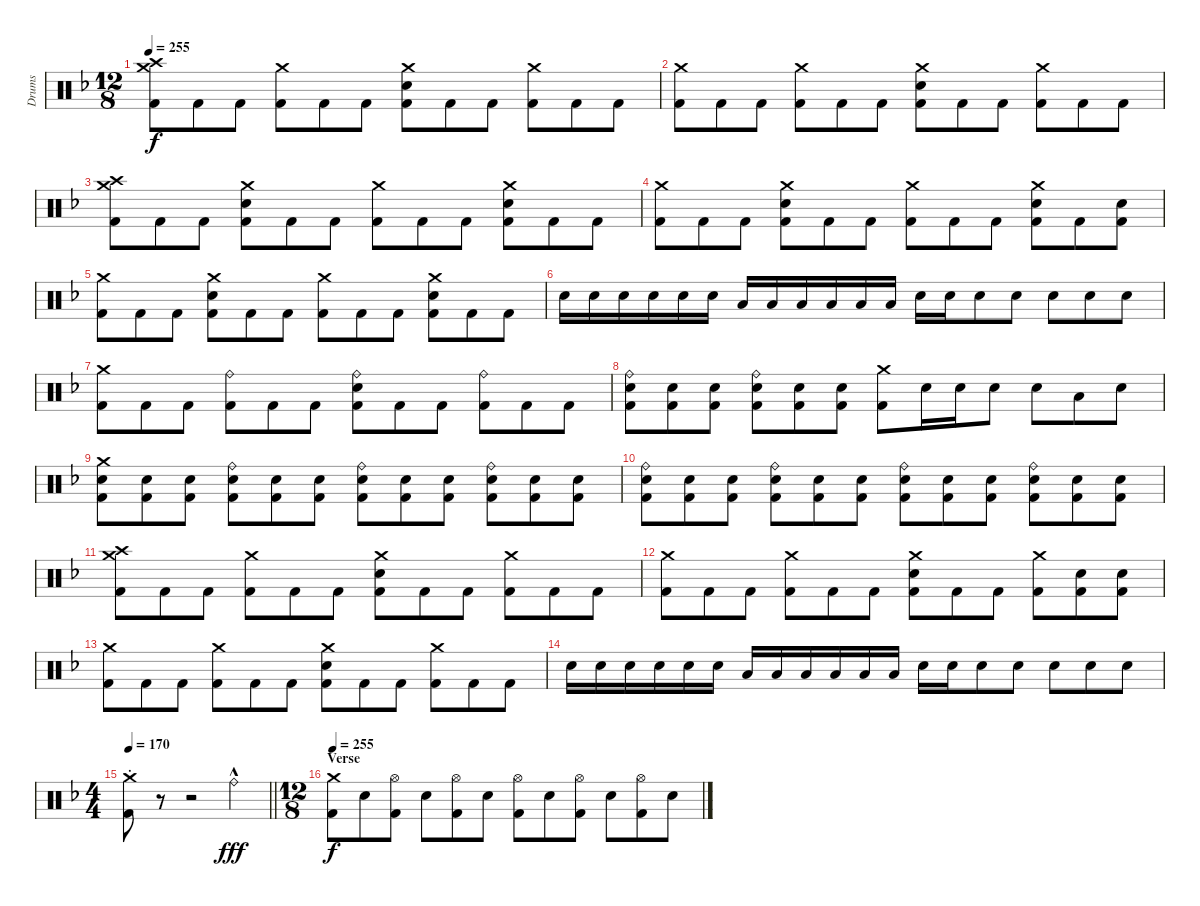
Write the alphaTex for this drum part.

\track ("Drums" "Drums") {instrument percussion}
\staff {score}
\articulation defaults
\ts (12 8)
\tempo 255
\clef neutral
\ks dminor
("Crash medium (hit)" "Crash high (hit)" "Kick (hit) 2").8{dy f} "Kick (hit) 2".8 "Kick (hit) 2".8 ("Crash medium (hit)" "Kick (hit) 2").8 "Kick (hit) 2".8 "Kick (hit) 2".8 ("Crash medium (hit)" "Electric Snare (hit)" "Kick (hit) 2").8 "Kick (hit) 2".8 "Kick (hit) 2".8 ("Crash medium (hit)" "Kick (hit) 2").8 "Kick (hit) 2".8 "Kick (hit) 2".8 |
("Crash medium (hit)" "Kick (hit) 2").8 "Kick (hit) 2".8 "Kick (hit) 2".8 ("Crash medium (hit)" "Kick (hit) 2").8 "Kick (hit) 2".8 "Kick (hit) 2".8 ("Crash medium (hit)" "Electric Snare (hit)" "Kick (hit) 2").8 "Kick (hit) 2".8 "Kick (hit) 2".8 ("Crash medium (hit)" "Kick (hit) 2").8 "Kick (hit) 2".8 "Kick (hit) 2".8 |
("Crash medium (hit)" "Crash high (hit)" "Kick (hit) 2").8 "Kick (hit) 2".8 "Kick (hit) 2".8 ("Crash medium (hit)" "Electric Snare (hit)" "Kick (hit) 2").8 "Kick (hit) 2".8 "Kick (hit) 2".8 ("Crash medium (hit)" "Kick (hit) 2").8 "Kick (hit) 2".8 "Kick (hit) 2".8 ("Crash medium (hit)" "Electric Snare (hit)" "Kick (hit) 2").8 "Kick (hit) 2".8 "Kick (hit) 2".8 |
("Crash medium (hit)" "Kick (hit) 2").8 "Kick (hit) 2".8 "Kick (hit) 2".8 ("Crash medium (hit)" "Electric Snare (hit)" "Kick (hit) 2").8 "Kick (hit) 2".8 "Kick (hit) 2".8 ("Crash medium (hit)" "Kick (hit) 2").8 "Kick (hit) 2".8 "Kick (hit) 2".8 ("Crash medium (hit)" "Electric Snare (hit)" "Kick (hit) 2").8 "Kick (hit) 2".8 ("Electric Snare (hit)" "Kick (hit) 2").8 |
("Crash medium (hit)" "Kick (hit) 2").8 "Kick (hit) 2".8 "Kick (hit) 2".8 ("Crash medium (hit)" "Electric Snare (hit)" "Kick (hit) 2").8 "Kick (hit) 2".8 "Kick (hit) 2".8 ("Crash medium (hit)" "Kick (hit) 2").8 "Kick (hit) 2".8 "Kick (hit) 2".8 ("Crash medium (hit)" "Electric Snare (hit)" "Kick (hit) 2").8 "Kick (hit) 2".8 "Kick (hit) 2".8 |
"Electric Snare (hit)".16 "Electric Snare (hit)".16 "Electric Snare (hit)".16 "Electric Snare (hit)".16 "Electric Snare (hit)".16 "Electric Snare (hit)".16 "Low Tom (hit)".16 "Low Tom (hit)".16 "Low Tom (hit)".16 "Low Tom (hit)".16 "Low Tom (hit)".16 "Low Tom (hit)".16 "Electric Snare (hit)".16 "Electric Snare (hit)".16 "Electric Snare (hit)".8 "Electric Snare (hit)".8 "Electric Snare (hit)".8 "Electric Snare (hit)".8 "Electric Snare (hit)".8 |
("Crash medium (hit)" "Kick (hit) 2").8 "Kick (hit) 2".8 "Kick (hit) 2".8 ("Ride (bell)" "Kick (hit) 2").8 "Kick (hit) 2".8 "Kick (hit) 2".8 ("Ride (bell)" "Electric Snare (hit)" "Kick (hit) 2").8 "Kick (hit) 2".8 "Kick (hit) 2".8 ("Ride (bell)" "Kick (hit) 2").8 "Kick (hit) 2".8 "Kick (hit) 2".8 |
("Ride (bell)" "Electric Snare (hit)" "Kick (hit) 2").8 ("Electric Snare (hit)" "Kick (hit) 2").8 ("Electric Snare (hit)" "Kick (hit) 2").8 ("Ride (bell)" "Electric Snare (hit)" "Kick (hit) 2").8 ("Electric Snare (hit)" "Kick (hit) 2").8 ("Electric Snare (hit)" "Kick (hit) 2").8 ("Crash medium (hit)" "Kick (hit) 2").8 "Electric Snare (hit)".16 "Electric Snare (hit)".16 "Electric Snare (hit)".8 "Electric Snare (hit)".8 "Low Floor Tom (hit)".8 "Electric Snare (hit)".8 |
("Crash medium (hit)" "Electric Snare (hit)" "Kick (hit) 2").8 ("Electric Snare (hit)" "Kick (hit) 2").8 ("Electric Snare (hit)" "Kick (hit) 2").8 ("Ride (bell)" "Electric Snare (hit)" "Kick (hit) 2").8 ("Electric Snare (hit)" "Kick (hit) 2").8 ("Electric Snare (hit)" "Kick (hit) 2").8 ("Ride (bell)" "Electric Snare (hit)" "Kick (hit) 2").8 ("Electric Snare (hit)" "Kick (hit) 2").8 ("Electric Snare (hit)" "Kick (hit) 2").8 ("Ride (bell)" "Electric Snare (hit)" "Kick (hit) 2").8 ("Electric Snare (hit)" "Kick (hit) 2").8 ("Electric Snare (hit)" "Kick (hit) 2").8 |
("Ride (bell)" "Electric Snare (hit)" "Kick (hit) 2").8 ("Electric Snare (hit)" "Kick (hit) 2").8 ("Electric Snare (hit)" "Kick (hit) 2").8 ("Ride (bell)" "Electric Snare (hit)" "Kick (hit) 2").8 ("Electric Snare (hit)" "Kick (hit) 2").8 ("Electric Snare (hit)" "Kick (hit) 2").8 ("Ride (bell)" "Electric Snare (hit)" "Kick (hit) 2").8 ("Electric Snare (hit)" "Kick (hit) 2").8 ("Electric Snare (hit)" "Kick (hit) 2").8 ("Ride (bell)" "Electric Snare (hit)" "Kick (hit) 2").8 ("Electric Snare (hit)" "Kick (hit) 2").8 ("Electric Snare (hit)" "Kick (hit) 2").8 |
("Crash medium (hit)" "Crash high (hit)" "Kick (hit) 2").8 "Kick (hit) 2".8 "Kick (hit) 2".8 ("Crash medium (hit)" "Kick (hit) 2").8 "Kick (hit) 2".8 "Kick (hit) 2".8 ("Crash medium (hit)" "Electric Snare (hit)" "Kick (hit) 2").8 "Kick (hit) 2".8 "Kick (hit) 2".8 ("Crash medium (hit)" "Kick (hit) 2").8 "Kick (hit) 2".8 "Kick (hit) 2".8 |
("Crash medium (hit)" "Kick (hit) 2").8 "Kick (hit) 2".8 "Kick (hit) 2".8 ("Crash medium (hit)" "Kick (hit) 2").8 "Kick (hit) 2".8 "Kick (hit) 2".8 ("Crash medium (hit)" "Electric Snare (hit)" "Kick (hit) 2").8 "Kick (hit) 2".8 "Kick (hit) 2".8 ("Crash medium (hit)" "Kick (hit) 2").8 ("Electric Snare (hit)" "Kick (hit) 2").8 ("Electric Snare (hit)" "Kick (hit) 2").8 |
("Crash medium (hit)" "Kick (hit) 2").8 "Kick (hit) 2".8 "Kick (hit) 2".8 ("Crash medium (hit)" "Kick (hit) 2").8 "Kick (hit) 2".8 "Kick (hit) 2".8 ("Crash medium (hit)" "Electric Snare (hit)" "Kick (hit) 2").8 "Kick (hit) 2".8 "Kick (hit) 2".8 ("Crash medium (hit)" "Kick (hit) 2").8 "Kick (hit) 2".8 "Kick (hit) 2".8 |
"Electric Snare (hit)".16 "Electric Snare (hit)".16 "Electric Snare (hit)".16 "Electric Snare (hit)".16 "Electric Snare (hit)".16 "Electric Snare (hit)".16 "Low Tom (hit)".16 "Low Tom (hit)".16 "Low Tom (hit)".16 "Low Tom (hit)".16 "Low Tom (hit)".16 "Low Tom (hit)".16 "Electric Snare (hit)".16 "Electric Snare (hit)".16 "Electric Snare (hit)".8 "Electric Snare (hit)".8 "Electric Snare (hit)".8 "Electric Snare (hit)".8 "Electric Snare (hit)".8 |
\ts (4 4)
\tempo 170
\barLineRight lightlight
("Crash medium (hit)"{st} "Kick (hit) 2").8 r.8{volume 0} r.2 "Ride (bell)"{hac}.4{dy fff volume 14} |
\ts (12 8)
\section ("" "Verse")
\tempo 255
("Crash medium (hit)" "Kick (hit) 2").8{dy f} "Electric Snare (hit)".8 ("Hi-Hat (open)" "Kick (hit) 2").8 "Electric Snare (hit)".8 ("Hi-Hat (open)" "Kick (hit) 2").8 "Electric Snare (hit)".8 ("Hi-Hat (open)" "Kick (hit) 2").8 "Electric Snare (hit)".8 ("Hi-Hat (open)" "Kick (hit) 2").8 "Electric Snare (hit)".8 ("Hi-Hat (open)" "Kick (hit) 2").8 "Electric Snare (hit)".8
